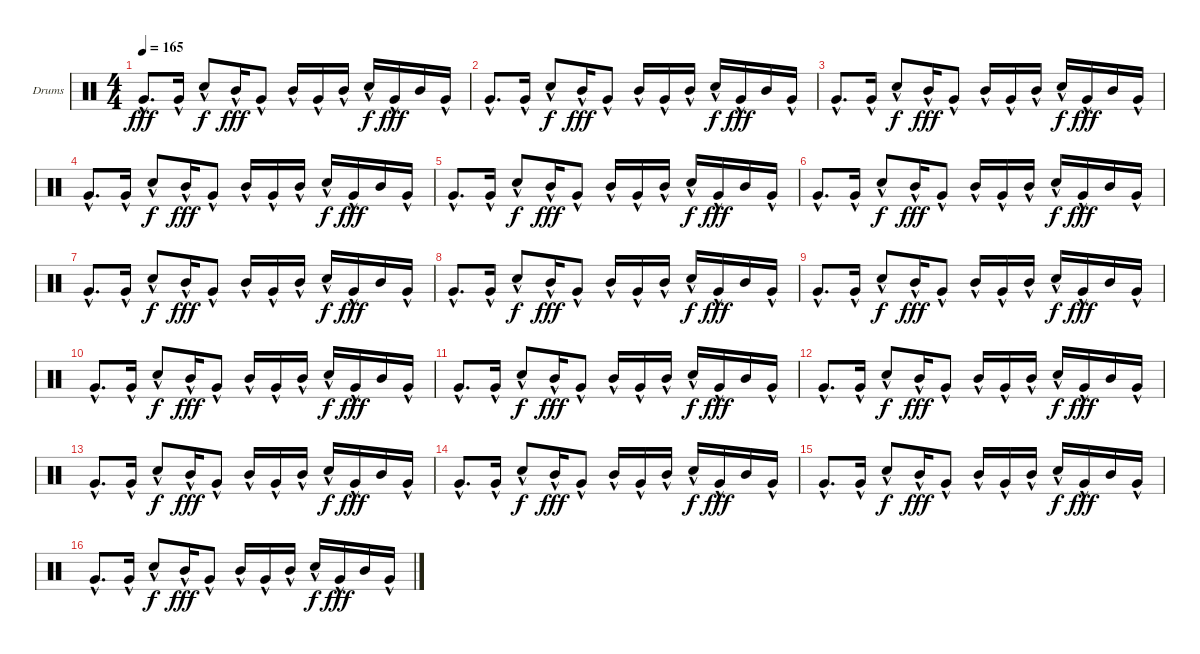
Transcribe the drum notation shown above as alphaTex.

\defaultSystemsLayout 4
\bracketExtendMode groupsimilarinstruments
\firstSystemTrackNameOrientation horizontal
\otherSystemsTrackNameOrientation horizontal
\track ("Helders" "Drums") {instrument percussion}
\staff {score}
\articulation defaults
\ts (4 4)
\tempo 165
\clef neutral
\ks c "Very Low Tom (hit)"{hac}.8{d dy fff} "Very Low Tom (hit)"{hac}.16 "Snare (hit) 2"{hac}.8{dy f} "Mid Tom (hit)"{hac}.16{dy fff} "Very Low Tom (hit)"{hac}.8 "Mid Tom (hit)"{hac}.16 "Very Low Tom (hit)"{hac}.16 "Mid Tom (hit)"{hac}.16 "Snare (hit) 2"{hac}.16{dy f} "Very Low Tom (hit)"{hac}.16{dy fff} "Mid Tom (hit)".16 "Very Low Tom (hit)"{hac}.16
|
"Very Low Tom (hit)"{hac}.8{d} "Very Low Tom (hit)"{hac}.16 "Snare (hit) 2"{hac}.8{dy f} "Mid Tom (hit)"{hac}.16{dy fff} "Very Low Tom (hit)"{hac}.8 "Mid Tom (hit)"{hac}.16 "Very Low Tom (hit)"{hac}.16 "Mid Tom (hit)"{hac}.16 "Snare (hit) 2"{hac}.16{dy f} "Very Low Tom (hit)"{hac}.16{dy fff} "Mid Tom (hit)".16 "Very Low Tom (hit)"{hac}.16 |
"Very Low Tom (hit)"{hac}.8{d} "Very Low Tom (hit)"{hac}.16 "Snare (hit) 2"{hac}.8{dy f} "Mid Tom (hit)"{hac}.16{dy fff} "Very Low Tom (hit)"{hac}.8 "Mid Tom (hit)"{hac}.16 "Very Low Tom (hit)"{hac}.16 "Mid Tom (hit)"{hac}.16 "Snare (hit) 2"{hac}.16{dy f} "Very Low Tom (hit)"{hac}.16{dy fff} "Mid Tom (hit)".16 "Very Low Tom (hit)"{hac}.16 |
"Very Low Tom (hit)"{hac}.8{d} "Very Low Tom (hit)"{hac}.16 "Snare (hit) 2"{hac}.8{dy f} "Mid Tom (hit)"{hac}.16{dy fff} "Very Low Tom (hit)"{hac}.8 "Mid Tom (hit)"{hac}.16 "Very Low Tom (hit)"{hac}.16 "Mid Tom (hit)"{hac}.16 "Snare (hit) 2"{hac}.16{dy f} "Very Low Tom (hit)"{hac}.16{dy fff} "Mid Tom (hit)".16 "Very Low Tom (hit)"{hac}.16 |
"Very Low Tom (hit)"{hac}.8{d} "Very Low Tom (hit)"{hac}.16 "Snare (hit) 2"{hac}.8{dy f} "Mid Tom (hit)"{hac}.16{dy fff} "Very Low Tom (hit)"{hac}.8 "Mid Tom (hit)"{hac}.16 "Very Low Tom (hit)"{hac}.16 "Mid Tom (hit)"{hac}.16 "Snare (hit) 2"{hac}.16{dy f} "Very Low Tom (hit)"{hac}.16{dy fff} "Mid Tom (hit)".16 "Very Low Tom (hit)"{hac}.16 |
"Very Low Tom (hit)"{hac}.8{d} "Very Low Tom (hit)"{hac}.16 "Snare (hit) 2"{hac}.8{dy f} "Mid Tom (hit)"{hac}.16{dy fff} "Very Low Tom (hit)"{hac}.8 "Mid Tom (hit)"{hac}.16 "Very Low Tom (hit)"{hac}.16 "Mid Tom (hit)"{hac}.16 "Snare (hit) 2"{hac}.16{dy f} "Very Low Tom (hit)"{hac}.16{dy fff} "Mid Tom (hit)".16 "Very Low Tom (hit)"{hac}.16 |
"Very Low Tom (hit)"{hac}.8{d} "Very Low Tom (hit)"{hac}.16 "Snare (hit) 2"{hac}.8{dy f} "Mid Tom (hit)"{hac}.16{dy fff} "Very Low Tom (hit)"{hac}.8 "Mid Tom (hit)"{hac}.16 "Very Low Tom (hit)"{hac}.16 "Mid Tom (hit)"{hac}.16 "Snare (hit) 2"{hac}.16{dy f} "Very Low Tom (hit)"{hac}.16{dy fff} "Mid Tom (hit)".16 "Very Low Tom (hit)"{hac}.16 |
"Very Low Tom (hit)"{hac}.8{d} "Very Low Tom (hit)"{hac}.16 "Snare (hit) 2"{hac}.8{dy f} "Mid Tom (hit)"{hac}.16{dy fff} "Very Low Tom (hit)"{hac}.8 "Mid Tom (hit)"{hac}.16 "Very Low Tom (hit)"{hac}.16 "Mid Tom (hit)"{hac}.16 "Snare (hit) 2"{hac}.16{dy f} "Very Low Tom (hit)"{hac}.16{dy fff} "Mid Tom (hit)".16 "Very Low Tom (hit)"{hac}.16 |
"Very Low Tom (hit)"{hac}.8{d} "Very Low Tom (hit)"{hac}.16 "Snare (hit) 2"{hac}.8{dy f} "Mid Tom (hit)"{hac}.16{dy fff} "Very Low Tom (hit)"{hac}.8 "Mid Tom (hit)"{hac}.16 "Very Low Tom (hit)"{hac}.16 "Mid Tom (hit)"{hac}.16 "Snare (hit) 2"{hac}.16{dy f} "Very Low Tom (hit)"{hac}.16{dy fff} "Mid Tom (hit)".16 "Very Low Tom (hit)"{hac}.16 |
"Very Low Tom (hit)"{hac}.8{d} "Very Low Tom (hit)"{hac}.16 "Snare (hit) 2"{hac}.8{dy f} "Mid Tom (hit)"{hac}.16{dy fff} "Very Low Tom (hit)"{hac}.8 "Mid Tom (hit)"{hac}.16 "Very Low Tom (hit)"{hac}.16 "Mid Tom (hit)"{hac}.16 "Snare (hit) 2"{hac}.16{dy f} "Very Low Tom (hit)"{hac}.16{dy fff} "Mid Tom (hit)".16 "Very Low Tom (hit)"{hac}.16 |
"Very Low Tom (hit)"{hac}.8{d} "Very Low Tom (hit)"{hac}.16 "Snare (hit) 2"{hac}.8{dy f} "Mid Tom (hit)"{hac}.16{dy fff} "Very Low Tom (hit)"{hac}.8 "Mid Tom (hit)"{hac}.16 "Very Low Tom (hit)"{hac}.16 "Mid Tom (hit)"{hac}.16 "Snare (hit) 2"{hac}.16{dy f} "Very Low Tom (hit)"{hac}.16{dy fff} "Mid Tom (hit)".16 "Very Low Tom (hit)"{hac}.16 |
"Very Low Tom (hit)"{hac}.8{d} "Very Low Tom (hit)"{hac}.16 "Snare (hit) 2"{hac}.8{dy f} "Mid Tom (hit)"{hac}.16{dy fff} "Very Low Tom (hit)"{hac}.8 "Mid Tom (hit)"{hac}.16 "Very Low Tom (hit)"{hac}.16 "Mid Tom (hit)"{hac}.16 "Snare (hit) 2"{hac}.16{dy f} "Very Low Tom (hit)"{hac}.16{dy fff} "Mid Tom (hit)".16 "Very Low Tom (hit)"{hac}.16 |
"Very Low Tom (hit)"{hac}.8{d} "Very Low Tom (hit)"{hac}.16 "Snare (hit) 2"{hac}.8{dy f} "Mid Tom (hit)"{hac}.16{dy fff} "Very Low Tom (hit)"{hac}.8 "Mid Tom (hit)"{hac}.16 "Very Low Tom (hit)"{hac}.16 "Mid Tom (hit)"{hac}.16 "Snare (hit) 2"{hac}.16{dy f} "Very Low Tom (hit)"{hac}.16{dy fff} "Mid Tom (hit)".16 "Very Low Tom (hit)"{hac}.16 |
"Very Low Tom (hit)"{hac}.8{d} "Very Low Tom (hit)"{hac}.16 "Snare (hit) 2"{hac}.8{dy f} "Mid Tom (hit)"{hac}.16{dy fff} "Very Low Tom (hit)"{hac}.8 "Mid Tom (hit)"{hac}.16 "Very Low Tom (hit)"{hac}.16 "Mid Tom (hit)"{hac}.16 "Snare (hit) 2"{hac}.16{dy f} "Very Low Tom (hit)"{hac}.16{dy fff} "Mid Tom (hit)".16 "Very Low Tom (hit)"{hac}.16 |
"Very Low Tom (hit)"{hac}.8{d} "Very Low Tom (hit)"{hac}.16 "Snare (hit) 2"{hac}.8{dy f} "Mid Tom (hit)"{hac}.16{dy fff} "Very Low Tom (hit)"{hac}.8 "Mid Tom (hit)"{hac}.16 "Very Low Tom (hit)"{hac}.16 "Mid Tom (hit)"{hac}.16 "Snare (hit) 2"{hac}.16{dy f} "Very Low Tom (hit)"{hac}.16{dy fff} "Mid Tom (hit)".16 "Very Low Tom (hit)"{hac}.16 |
"Very Low Tom (hit)"{hac}.8{d} "Very Low Tom (hit)"{hac}.16 "Snare (hit) 2"{hac}.8{dy f} "Mid Tom (hit)"{hac}.16{dy fff} "Very Low Tom (hit)"{hac}.8 "Mid Tom (hit)"{hac}.16 "Very Low Tom (hit)"{hac}.16 "Mid Tom (hit)"{hac}.16 "Snare (hit) 2"{hac}.16{dy f} "Very Low Tom (hit)"{hac}.16{dy fff} "Mid Tom (hit)".16 "Very Low Tom (hit)"{hac}.16
